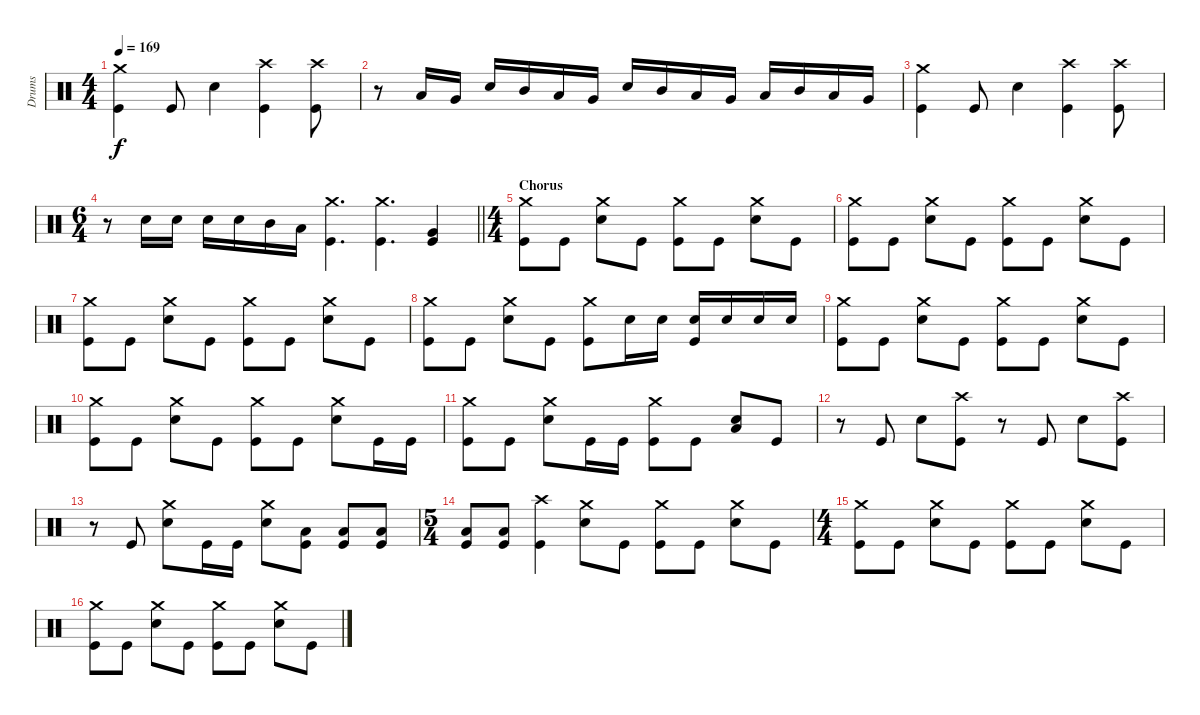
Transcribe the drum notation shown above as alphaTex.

\track ("Drums" "Drums") {instrument percussion}
\staff {score}
\articulation defaults
\ts (4 4)
\tempo 169
\clef neutral
\ks c
("Crash medium (hit)" "Kick (hit)").4{dy f} "Kick (hit)".8 "Snare (hit) 2".4 ("Crash high (hit)" "Kick (hit)").4 ("Crash high (hit)" "Kick (hit)").8 |
r.8 "Low Tom (hit)".16 "Very Low Tom (hit)".16 "Snare (hit) 2".16 "Mid Tom (hit)".16 "Low Tom (hit)".16 "Very Low Tom (hit)".16 "Snare (hit) 2".16 "Mid Tom (hit)".16 "Low Tom (hit)".16 "Very Low Tom (hit)".16 "Low Tom (hit)".16 "Mid Tom (hit)".16 "Low Tom (hit)".16 "Very Low Tom (hit)".16 |
("Crash medium (hit)" "Kick (hit)").4 "Kick (hit)".8 "Snare (hit) 2".4 ("Crash high (hit)" "Kick (hit)").4 ("Crash high (hit)" "Kick (hit)").8 |
\ts (6 4)
\barLineRight lightlight
r.8 "Snare (hit) 2".16 "Snare (hit) 2".16 "Snare (hit) 2".16 "Snare (hit)".16 "Mid Tom (hit)".16 "Low Tom (hit)".16 ("Crash medium (hit)" "Kick (hit)").4{d} ("Crash medium (hit)" "Kick (hit)").4{d} ("Very Low Tom (hit)" "Kick (hit)").4 |
\ts (4 4)
\section ("" "Chorus")
("Crash medium (hit)" "Kick (hit)").8 "Kick (hit)".8 ("Crash medium (hit)" "Snare (hit) 2").8 "Kick (hit)".8 ("Crash medium (hit)" "Kick (hit)").8 "Kick (hit)".8 ("Crash medium (hit)" "Snare (hit) 2").8 "Kick (hit)".8 |
("Crash medium (hit)" "Kick (hit)").8 "Kick (hit)".8 ("Crash medium (hit)" "Snare (hit) 2").8 "Kick (hit)".8 ("Crash medium (hit)" "Kick (hit)").8 "Kick (hit)".8 ("Crash medium (hit)" "Snare (hit) 2").8 "Kick (hit)".8 |
("Crash medium (hit)" "Kick (hit)").8 "Kick (hit)".8 ("Crash medium (hit)" "Snare (hit) 2").8 "Kick (hit)".8 ("Crash medium (hit)" "Kick (hit)").8 "Kick (hit)".8 ("Crash medium (hit)" "Snare (hit) 2").8 "Kick (hit)".8 |
("Crash medium (hit)" "Kick (hit)").8 "Kick (hit)".8 ("Crash medium (hit)" "Snare (hit) 2").8 "Kick (hit)".8 ("Crash medium (hit)" "Kick (hit)").8 "Snare (hit) 2".16 "Snare (hit) 2".16 ("Snare (hit) 2" "Kick (hit)").16 "Snare (hit) 2".16 "Snare (hit) 2".16 "Snare (hit) 2".16 |
("Crash medium (hit)" "Kick (hit)").8 "Kick (hit)".8 ("Crash medium (hit)" "Snare (hit) 2").8 "Kick (hit)".8 ("Crash medium (hit)" "Kick (hit)").8 "Kick (hit)".8 ("Crash medium (hit)" "Snare (hit) 2").8 "Kick (hit)".8 |
("Crash medium (hit)" "Kick (hit)").8 "Kick (hit)".8 ("Crash medium (hit)" "Snare (hit) 2").8 "Kick (hit)".8 ("Crash medium (hit)" "Kick (hit)").8 "Kick (hit)".8 ("Crash medium (hit)" "Snare (hit) 2").8 "Kick (hit)".16 "Kick (hit)".16 |
("Crash medium (hit)" "Kick (hit)").8 "Kick (hit)".8 ("Crash medium (hit)" "Snare (hit) 2").8 "Kick (hit)".16 "Kick (hit)".16 ("Crash medium (hit)" "Kick (hit)").8 "Kick (hit)".8 ("Snare (hit) 2" "Low Tom (hit)").8 "Kick (hit)".8 |
r.8 "Kick (hit)".8 "Snare (hit) 2".8 ("Crash high (hit)" "Kick (hit)").8 r.8 "Kick (hit)".8 "Snare (hit) 2".8 ("Crash high (hit)" "Kick (hit)").8 |
r.8 "Kick (hit)".8 ("Crash medium (hit)" "Snare (hit) 2").8 "Kick (hit)".16 "Kick (hit)".16 ("Crash medium (hit)" "Snare (hit) 2").8 ("Low Tom (hit)" "Kick (hit)").8 ("Low Tom (hit)" "Kick (hit)").8 ("Low Tom (hit)" "Kick (hit)").8 |
\ts (5 4)
("Low Tom (hit)" "Kick (hit)").8 ("Low Tom (hit)" "Kick (hit)").8 ("Crash high (hit)" "Kick (hit)").4 ("Crash medium (hit)" "Snare (hit) 2").8 "Kick (hit)".8 ("Crash medium (hit)" "Kick (hit)").8 "Kick (hit)".8 ("Crash medium (hit)" "Snare (hit) 2").8 "Kick (hit)".8 |
\ts (4 4)
("Crash medium (hit)" "Kick (hit)").8 "Kick (hit)".8 ("Crash medium (hit)" "Snare (hit) 2").8 "Kick (hit)".8 ("Crash medium (hit)" "Kick (hit)").8 "Kick (hit)".8 ("Crash medium (hit)" "Snare (hit) 2").8 "Kick (hit)".8 |
("Crash medium (hit)" "Kick (hit)").8 "Kick (hit)".8 ("Crash medium (hit)" "Snare (hit) 2").8 "Kick (hit)".8 ("Crash medium (hit)" "Kick (hit)").8 "Kick (hit)".8 ("Crash medium (hit)" "Snare (hit) 2").8 "Kick (hit)".8
